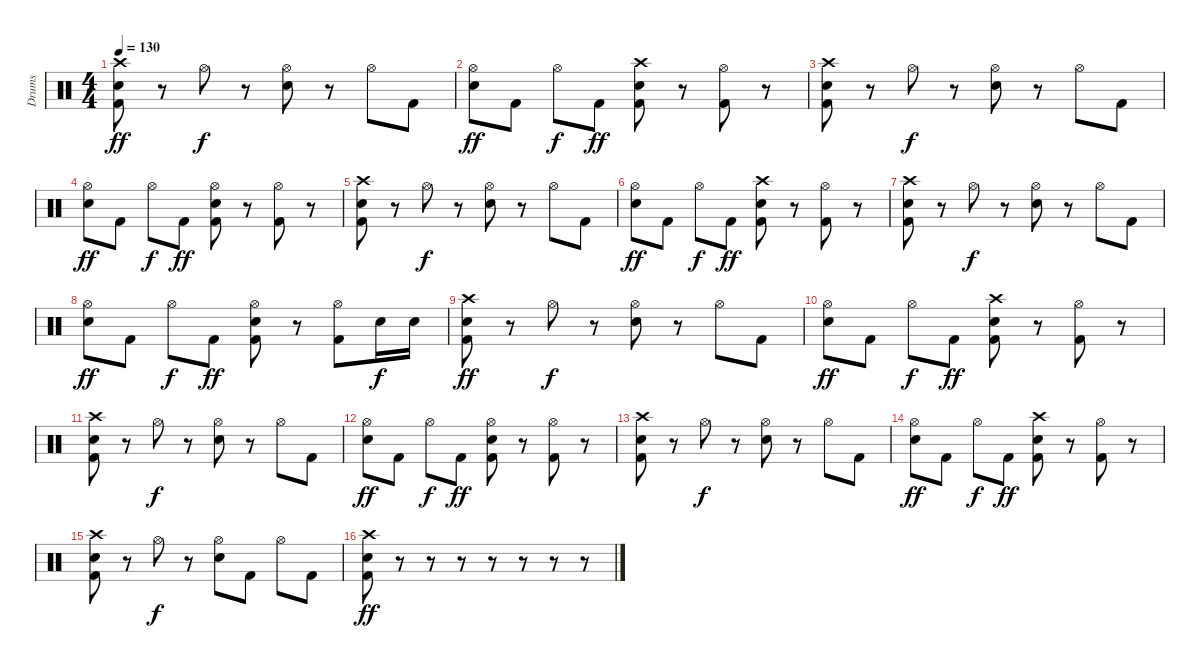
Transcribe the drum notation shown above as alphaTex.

\track ("Drums" "Drums") {instrument percussion}
\staff {score}
\articulation defaults
\ts (4 4)
\tempo 130
\clef neutral
\ks c
("Crash high (hit)" "Snare (hit) 2" "Kick (hit) 2").8{dy ff} r.8 "Hi-Hat (open)".8{dy f} r.8 ("Hi-Hat (open)" "Snare (hit) 2").8 r.8 "Hi-Hat (open)".8 "Kick (hit) 2".8 |
("Hi-Hat (open)" "Snare (hit) 2").8{dy ff} "Kick (hit) 2".8 "Hi-Hat (open)".8{dy f} "Kick (hit) 2".8{dy ff} ("Crash high (hit)" "Snare (hit) 2" "Kick (hit) 2").8 r.8 ("Hi-Hat (open)" "Kick (hit) 2").8 r.8 |
("Crash high (hit)" "Snare (hit) 2" "Kick (hit) 2").8 r.8 "Hi-Hat (open)".8{dy f} r.8 ("Hi-Hat (open)" "Snare (hit) 2").8 r.8 "Hi-Hat (open)".8 "Kick (hit) 2".8 |
("Hi-Hat (open)" "Snare (hit) 2").8{dy ff} "Kick (hit) 2".8 "Hi-Hat (open)".8{dy f} "Kick (hit) 2".8{dy ff} ("Hi-Hat (open)" "Snare (hit) 2" "Kick (hit) 2").8 r.8 ("Hi-Hat (open)" "Kick (hit) 2").8 r.8 |
("Crash high (hit)" "Snare (hit) 2" "Kick (hit) 2").8 r.8 "Hi-Hat (open)".8{dy f} r.8 ("Hi-Hat (open)" "Snare (hit) 2").8 r.8 "Hi-Hat (open)".8 "Kick (hit) 2".8 |
("Hi-Hat (open)" "Snare (hit) 2").8{dy ff} "Kick (hit) 2".8 "Hi-Hat (open)".8{dy f} "Kick (hit) 2".8{dy ff} ("Crash high (hit)" "Snare (hit) 2" "Kick (hit) 2").8 r.8 ("Hi-Hat (open)" "Kick (hit) 2").8 r.8 |
("Crash high (hit)" "Snare (hit) 2" "Kick (hit) 2").8 r.8 "Hi-Hat (open)".8{dy f} r.8 ("Hi-Hat (open)" "Snare (hit) 2").8 r.8 "Hi-Hat (open)".8 "Kick (hit) 2".8 |
("Hi-Hat (open)" "Snare (hit) 2").8{dy ff} "Kick (hit) 2".8 "Hi-Hat (open)".8{dy f} "Kick (hit) 2".8{dy ff} ("Hi-Hat (open)" "Snare (hit) 2" "Kick (hit) 2").8 r.8 ("Hi-Hat (open)" "Kick (hit) 2").8 "Snare (hit) 2".16{dy f} "Snare (hit) 2".16 |
("Crash high (hit)" "Snare (hit) 2" "Kick (hit) 2").8{dy ff} r.8 "Hi-Hat (open)".8{dy f} r.8 ("Hi-Hat (open)" "Snare (hit) 2").8 r.8 "Hi-Hat (open)".8 "Kick (hit) 2".8 |
("Hi-Hat (open)" "Snare (hit) 2").8{dy ff} "Kick (hit) 2".8 "Hi-Hat (open)".8{dy f} "Kick (hit) 2".8{dy ff} ("Crash high (hit)" "Snare (hit) 2" "Kick (hit) 2").8 r.8 ("Hi-Hat (open)" "Kick (hit) 2").8 r.8 |
("Crash high (hit)" "Snare (hit) 2" "Kick (hit) 2").8 r.8 "Hi-Hat (open)".8{dy f} r.8 ("Hi-Hat (open)" "Snare (hit) 2").8 r.8 "Hi-Hat (open)".8 "Kick (hit) 2".8 |
("Hi-Hat (open)" "Snare (hit) 2").8{dy ff} "Kick (hit) 2".8 "Hi-Hat (open)".8{dy f} "Kick (hit) 2".8{dy ff} ("Hi-Hat (open)" "Snare (hit) 2" "Kick (hit) 2").8 r.8 ("Hi-Hat (open)" "Kick (hit) 2").8 r.8 |
("Crash high (hit)" "Snare (hit) 2" "Kick (hit) 2").8 r.8 "Hi-Hat (open)".8{dy f} r.8 ("Hi-Hat (open)" "Snare (hit) 2").8 r.8 "Hi-Hat (open)".8 "Kick (hit) 2".8 |
("Hi-Hat (open)" "Snare (hit) 2").8{dy ff} "Kick (hit) 2".8 "Hi-Hat (open)".8{dy f} "Kick (hit) 2".8{dy ff} ("Crash high (hit)" "Snare (hit) 2" "Kick (hit) 2").8 r.8 ("Hi-Hat (open)" "Kick (hit) 2").8 r.8 |
("Crash high (hit)" "Snare (hit) 2" "Kick (hit) 2").8 r.8 "Hi-Hat (open)".8{dy f} r.8 ("Hi-Hat (open)" "Snare (hit) 2").8 "Kick (hit) 2".8 "Hi-Hat (open)".8 "Kick (hit) 2".8 |
("Crash high (hit)" "Snare (hit) 2" "Kick (hit) 2").8{dy ff} r.8 r.8 r.8 r.8 r.8 r.8 r.8
